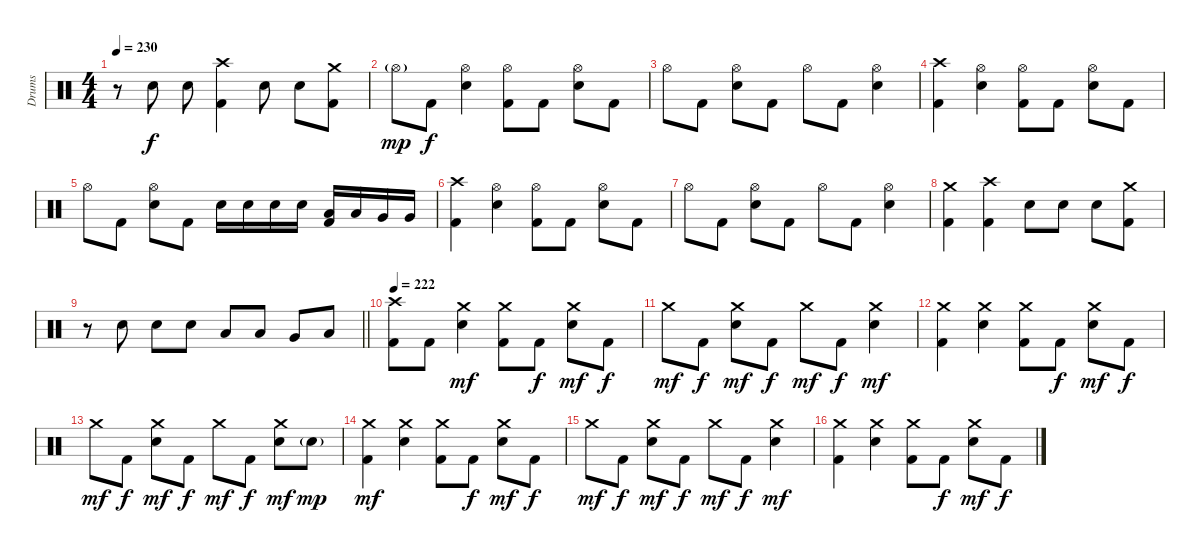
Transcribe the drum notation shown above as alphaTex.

\track ("Drums" "Drums") {instrument percussion}
\staff {score}
\articulation defaults
\ts (4 4)
\tempo 230
\clef neutral
\ks c
r.8{dy f} "Electric Snare (hit)".8 "Electric Snare (hit)".8 ("Crash high (hit)" "Kick (hit) 2").4 "Electric Snare (hit)".8 "Electric Snare (hit)".8 ("Crash medium (hit)" "Kick (hit) 2").8 |
"Hi-Hat (open)"{g}.8{dy mp} "Kick (hit) 2".8{dy f} ("Hi-Hat (open)" "Electric Snare (hit)").4 ("Hi-Hat (open)" "Kick (hit) 2").8 "Kick (hit) 2".8 ("Hi-Hat (open)" "Electric Snare (hit)").8 "Kick (hit) 2".8 |
"Hi-Hat (open)".8 "Kick (hit) 2".8 ("Hi-Hat (open)" "Electric Snare (hit)").8 "Kick (hit) 2".8 "Hi-Hat (open)".8 "Kick (hit) 2".8 ("Hi-Hat (open)" "Electric Snare (hit)").4 |
("Crash high (hit)" "Kick (hit) 2").4 ("Hi-Hat (open)" "Electric Snare (hit)").4 ("Hi-Hat (open)" "Kick (hit) 2").8 "Kick (hit) 2".8 ("Hi-Hat (open)" "Electric Snare (hit)").8 "Kick (hit) 2".8 |
"Hi-Hat (open)".8 "Kick (hit) 2".8 ("Hi-Hat (open)" "Electric Snare (hit)").8 "Kick (hit) 2".8 "Electric Snare (hit)".16 "Electric Snare (hit)".16 "Electric Snare (hit)".16 "Electric Snare (hit)".16 ("Low Tom (hit)" "Kick (hit) 2").16 "Low Tom (hit)".16 "Very Low Tom (hit)".16 "Very Low Tom (hit)".16 |
("Crash high (hit)" "Kick (hit) 2").4 ("Hi-Hat (open)" "Electric Snare (hit)").4 ("Hi-Hat (open)" "Kick (hit) 2").8 "Kick (hit) 2".8 ("Hi-Hat (open)" "Electric Snare (hit)").8 "Kick (hit) 2".8 |
"Hi-Hat (open)".8 "Kick (hit) 2".8 ("Hi-Hat (open)" "Electric Snare (hit)").8 "Kick (hit) 2".8 "Hi-Hat (open)".8 "Kick (hit) 2".8 ("Hi-Hat (open)" "Electric Snare (hit)").4 |
("Crash medium (hit)" "Kick (hit) 2").4 ("Crash high (hit)" "Kick (hit) 2").4 "Electric Snare (hit)".8 "Electric Snare (hit)".8 "Electric Snare (hit)".8 ("Crash medium (hit)" "Kick (hit) 2").8 |
\barLineRight lightlight
r.8 "Electric Snare (hit)".8 "Electric Snare (hit)".8 "Electric Snare (hit)".8 "Low Tom (hit)".8 "Low Tom (hit)".8 "Very Low Tom (hit)".8 "Low Floor Tom (hit)".8 |
\section ("" "")
\tempo 222
("Crash high (hit)" "Kick (hit) 2").8 "Kick (hit) 2".8 ("Crash medium (hit)" "Electric Snare (hit)").4{dy mf} ("Crash medium (hit)" "Kick (hit) 2").8 "Kick (hit) 2".8{dy f} ("Crash medium (hit)" "Electric Snare (hit)").8{dy mf} "Kick (hit) 2".8{dy f} |
"Crash medium (hit)".8{dy mf} "Kick (hit) 2".8{dy f} ("Crash medium (hit)" "Electric Snare (hit)").8{dy mf} "Kick (hit) 2".8{dy f} "Crash medium (hit)".8{dy mf} "Kick (hit) 2".8{dy f} ("Crash medium (hit)" "Electric Snare (hit)").4{dy mf} |
("Crash medium (hit)" "Kick (hit) 2").4 ("Crash medium (hit)" "Electric Snare (hit)").4 ("Crash medium (hit)" "Kick (hit) 2").8 "Kick (hit) 2".8{dy f} ("Crash medium (hit)" "Electric Snare (hit)").8{dy mf} "Kick (hit) 2".8{dy f} |
"Crash medium (hit)".8{dy mf} "Kick (hit) 2".8{dy f} ("Crash medium (hit)" "Electric Snare (hit)").8{dy mf} "Kick (hit) 2".8{dy f} "Crash medium (hit)".8{dy mf} "Kick (hit) 2".8{dy f} ("Crash medium (hit)" "Electric Snare (hit)").8{dy mf} "Electric Snare (hit)"{g}.8{dy mp} |
("Crash medium (hit)" "Kick (hit) 2").4{dy mf} ("Crash medium (hit)" "Electric Snare (hit)").4 ("Crash medium (hit)" "Kick (hit) 2").8 "Kick (hit) 2".8{dy f} ("Crash medium (hit)" "Electric Snare (hit)").8{dy mf} "Kick (hit) 2".8{dy f} |
"Crash medium (hit)".8{dy mf} "Kick (hit) 2".8{dy f} ("Crash medium (hit)" "Electric Snare (hit)").8{dy mf} "Kick (hit) 2".8{dy f} "Crash medium (hit)".8{dy mf} "Kick (hit) 2".8{dy f} ("Crash medium (hit)" "Electric Snare (hit)").4{dy mf} |
("Crash medium (hit)" "Kick (hit) 2").4 ("Crash medium (hit)" "Electric Snare (hit)").4 ("Crash medium (hit)" "Kick (hit) 2").8 "Kick (hit) 2".8{dy f} ("Crash medium (hit)" "Electric Snare (hit)").8{dy mf} "Kick (hit) 2".8{dy f}
